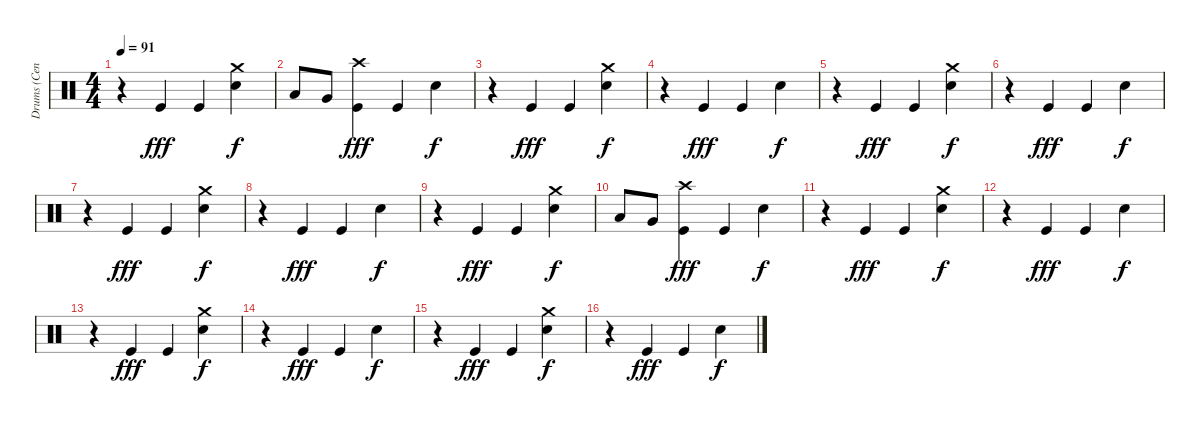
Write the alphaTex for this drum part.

\track ("Drums (Cenk)" "Drums (Cen") {instrument percussion}
\staff {score}
\articulation defaults
\ts (4 4)
\tempo 91
\clef neutral
\ks c
r.4{dy f} "Kick (hit)".4{dy fff} "Kick (hit)".4 ("Crash medium (hit)" "Snare (hit) 2").4{dy f} |
"Low Tom (hit)".8 "Very Low Tom (hit)".8 ("Crash high (hit)" "Kick (hit)").4{dy fff} "Kick (hit)".4 "Snare (hit) 2".4{dy f} |
r.4 "Kick (hit)".4{dy fff} "Kick (hit)".4 ("Crash medium (hit)" "Snare (hit) 2").4{dy f} |
r.4 "Kick (hit)".4{dy fff} "Kick (hit)".4 "Snare (hit) 2".4{dy f} |
r.4 "Kick (hit)".4{dy fff} "Kick (hit)".4 ("Crash medium (hit)" "Snare (hit) 2").4{dy f} |
r.4 "Kick (hit)".4{dy fff} "Kick (hit)".4 "Snare (hit) 2".4{dy f} |
r.4 "Kick (hit)".4{dy fff} "Kick (hit)".4 ("Crash medium (hit)" "Snare (hit) 2").4{dy f} |
r.4 "Kick (hit)".4{dy fff} "Kick (hit)".4 "Snare (hit) 2".4{dy f} |
r.4 "Kick (hit)".4{dy fff} "Kick (hit)".4 ("Crash medium (hit)" "Snare (hit) 2").4{dy f} |
"Low Tom (hit)".8 "Very Low Tom (hit)".8 ("Crash high (hit)" "Kick (hit)").4{dy fff} "Kick (hit)".4 "Snare (hit) 2".4{dy f} |
r.4 "Kick (hit)".4{dy fff} "Kick (hit)".4 ("Crash medium (hit)" "Snare (hit) 2").4{dy f} |
r.4 "Kick (hit)".4{dy fff} "Kick (hit)".4 "Snare (hit) 2".4{dy f} |
r.4 "Kick (hit)".4{dy fff} "Kick (hit)".4 ("Crash medium (hit)" "Snare (hit) 2").4{dy f} |
r.4 "Kick (hit)".4{dy fff} "Kick (hit)".4 "Snare (hit) 2".4{dy f} |
r.4 "Kick (hit)".4{dy fff} "Kick (hit)".4 ("Crash medium (hit)" "Snare (hit) 2").4{dy f} |
r.4 "Kick (hit)".4{dy fff} "Kick (hit)".4 "Snare (hit) 2".4{dy f}
